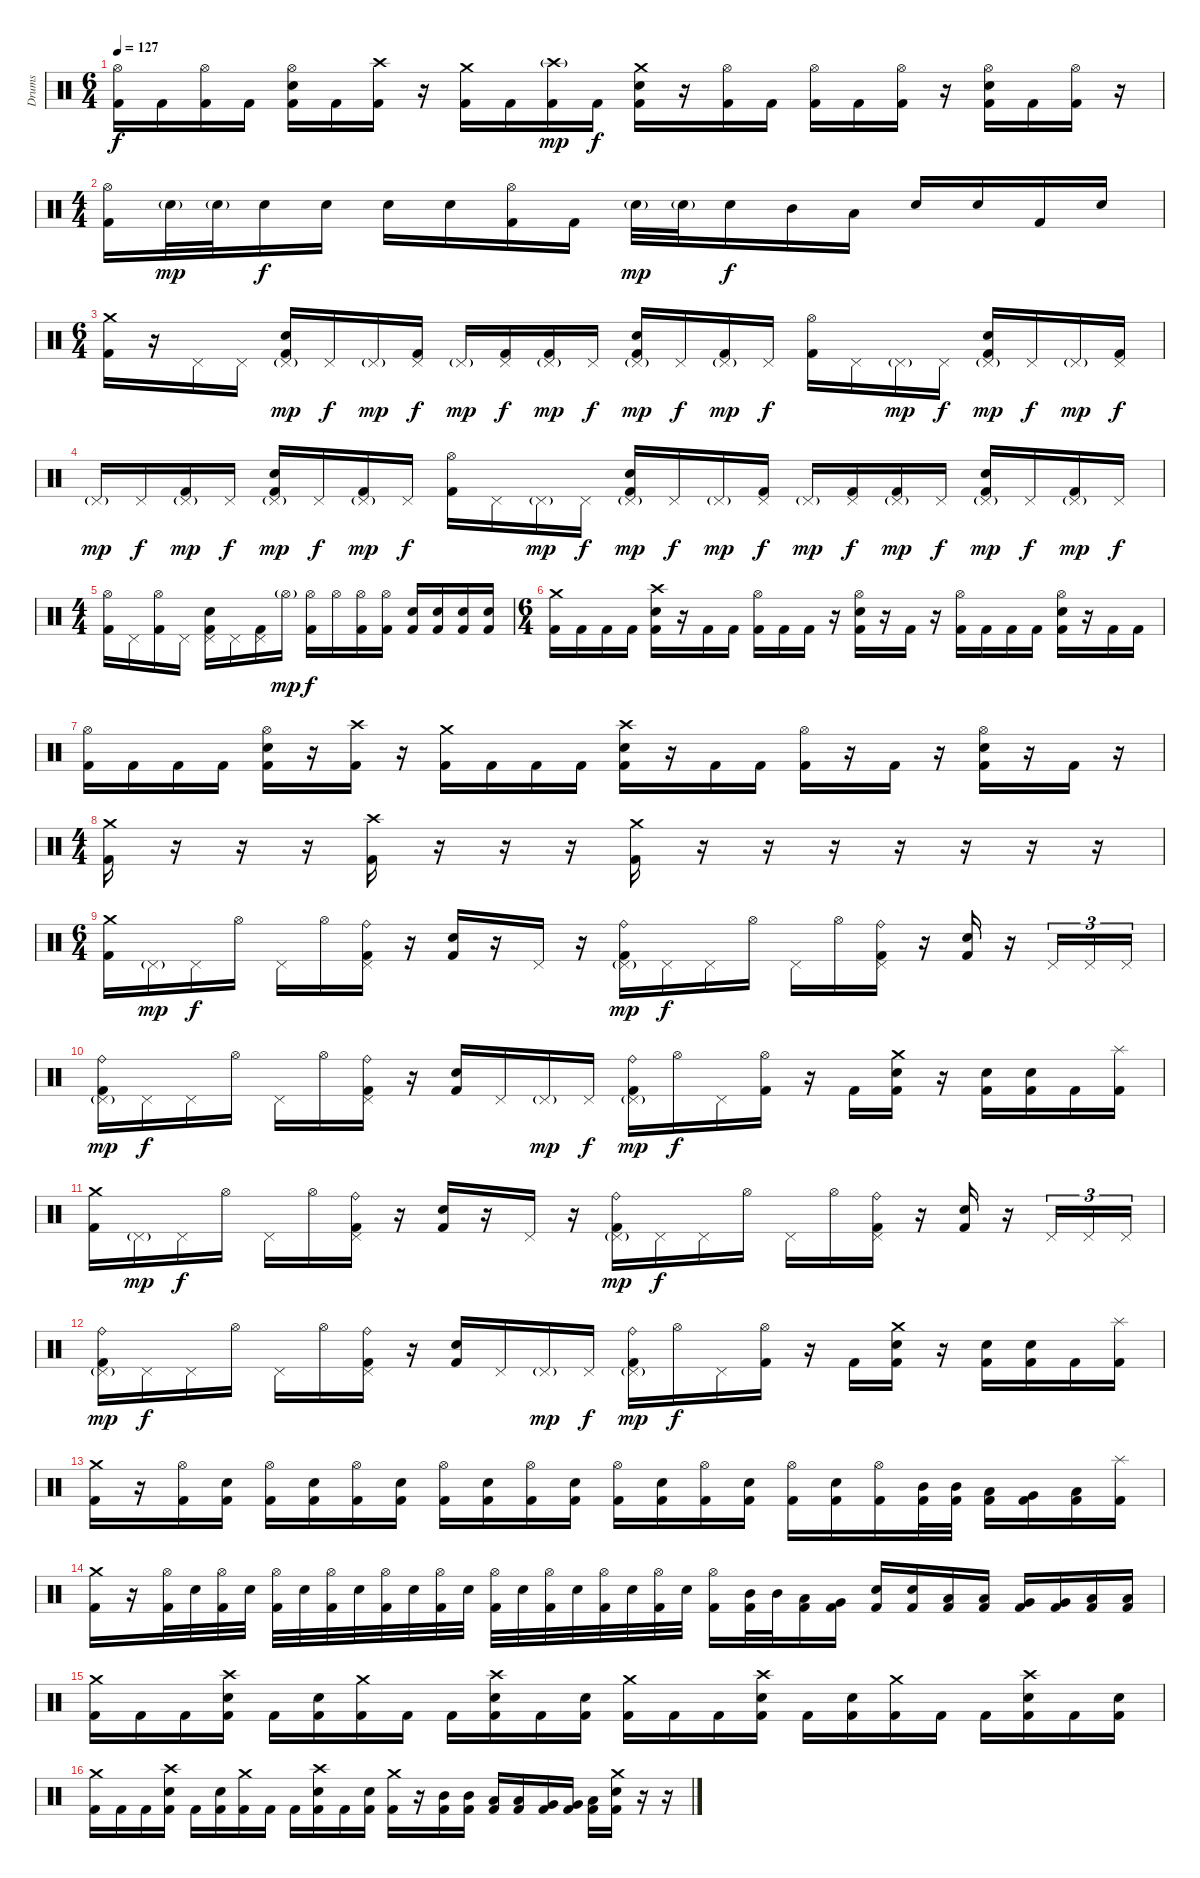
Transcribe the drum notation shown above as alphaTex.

\track ("Drums" "Drums") {instrument percussion}
\staff {score}
\articulation defaults
\ts (6 4)
\tempo 127
\clef neutral
\ks c
("Hi-Hat (open)" "Kick (hit) 2").16{dy f} "Kick (hit) 2".16 ("Hi-Hat (open)" "Kick (hit) 2").16 "Kick (hit) 2".16 ("Hi-Hat (open)" "Electric Snare (hit)" "Kick (hit) 2").16 "Kick (hit) 2".16 ("Crash high (hit)" "Kick (hit) 2").16 r.16 ("Crash medium (hit)" "Kick (hit) 2").16 "Kick (hit) 2".16 ("Crash high (hit)"{g} "Kick (hit) 2").16{dy mp} "Kick (hit) 2".16{dy f} ("Crash medium (hit)" "Electric Snare (hit)" "Kick (hit) 2").16 r.16 ("Hi-Hat (open)" "Kick (hit) 2").16 "Kick (hit) 2".16 ("Hi-Hat (open)" "Kick (hit) 2").16 "Kick (hit) 2".16 ("Hi-Hat (open)" "Kick (hit) 2").16 r.16 ("Hi-Hat (open)" "Electric Snare (hit)" "Kick (hit) 2").16 "Kick (hit) 2".16 ("Hi-Hat (open)" "Kick (hit) 2").16 r.16 |
\ts (4 4)
("Hi-Hat (open)" "Kick (hit) 2").16 "Electric Snare (hit)"{g}.32{dy mp} "Electric Snare (hit)"{g}.32 "Electric Snare (hit)".16{dy f} "Electric Snare (hit)".16 "Electric Snare (hit)".16 "Electric Snare (hit)".16 ("Hi-Hat (open)" "Kick (hit) 2").16 "Kick (hit) 2".16 "Electric Snare (hit)"{g}.32{dy mp} "Electric Snare (hit)"{g}.32 "Electric Snare (hit)".16{dy f} "Mid Tom (hit)".16 "Low Tom (hit)".16 "Electric Snare (hit)".16 "Electric Snare (hit)".16 "Kick (hit) 2".16 "Electric Snare (hit)".16 |
\ts (6 4)
("Crash medium (hit)" "Kick (hit) 2").16 r.16 "Pedal Hi-Hat (hit)".16 "Pedal Hi-Hat (hit)".16 ("Pedal Hi-Hat (hit)"{g} "Electric Snare (hit)" "Kick (hit) 2").16{dy mp} "Pedal Hi-Hat (hit)".16{dy f} "Pedal Hi-Hat (hit)"{g}.16{dy mp} ("Pedal Hi-Hat (hit)" "Kick (hit) 2").16{dy f} "Pedal Hi-Hat (hit)"{g}.16{dy mp} ("Pedal Hi-Hat (hit)" "Kick (hit) 2").16{dy f} ("Pedal Hi-Hat (hit)"{g} "Kick (hit) 2").16{dy mp} "Pedal Hi-Hat (hit)".16{dy f} ("Pedal Hi-Hat (hit)"{g} "Electric Snare (hit)" "Kick (hit) 2").16{dy mp} "Pedal Hi-Hat (hit)".16{dy f} ("Pedal Hi-Hat (hit)"{g} "Kick (hit) 2").16{dy mp} "Pedal Hi-Hat (hit)".16{dy f} ("Hi-Hat (open)" "Kick (hit) 2").16 "Pedal Hi-Hat (hit)".16 "Pedal Hi-Hat (hit)"{g}.16{dy mp} "Pedal Hi-Hat (hit)".16{dy f} ("Pedal Hi-Hat (hit)"{g} "Electric Snare (hit)" "Kick (hit) 2").16{dy mp} "Pedal Hi-Hat (hit)".16{dy f} "Pedal Hi-Hat (hit)"{g}.16{dy mp} ("Pedal Hi-Hat (hit)" "Kick (hit) 2").16{dy f} |
"Pedal Hi-Hat (hit)"{g}.16{dy mp} "Pedal Hi-Hat (hit)".16{dy f} ("Pedal Hi-Hat (hit)"{g} "Kick (hit) 2").16{dy mp} "Pedal Hi-Hat (hit)".16{dy f} ("Pedal Hi-Hat (hit)"{g} "Electric Snare (hit)" "Kick (hit) 2").16{dy mp} "Pedal Hi-Hat (hit)".16{dy f} ("Pedal Hi-Hat (hit)"{g} "Kick (hit) 2").16{dy mp} "Pedal Hi-Hat (hit)".16{dy f} ("Hi-Hat (open)" "Kick (hit) 2").16 "Pedal Hi-Hat (hit)".16 "Pedal Hi-Hat (hit)"{g}.16{dy mp} "Pedal Hi-Hat (hit)".16{dy f} ("Pedal Hi-Hat (hit)"{g} "Electric Snare (hit)" "Kick (hit) 2").16{dy mp} "Pedal Hi-Hat (hit)".16{dy f} "Pedal Hi-Hat (hit)"{g}.16{dy mp} ("Pedal Hi-Hat (hit)" "Kick (hit) 2").16{dy f} "Pedal Hi-Hat (hit)"{g}.16{dy mp} ("Pedal Hi-Hat (hit)" "Kick (hit) 2").16{dy f} ("Pedal Hi-Hat (hit)"{g} "Kick (hit) 2").16{dy mp} "Pedal Hi-Hat (hit)".16{dy f} ("Pedal Hi-Hat (hit)"{g} "Electric Snare (hit)" "Kick (hit) 2").16{dy mp} "Pedal Hi-Hat (hit)".16{dy f} ("Pedal Hi-Hat (hit)"{g} "Kick (hit) 2").16{dy mp} "Pedal Hi-Hat (hit)".16{dy f} |
\ts (4 4)
("Hi-Hat (open)" "Kick (hit) 2").16 "Pedal Hi-Hat (hit)".16 ("Hi-Hat (open)" "Kick (hit) 2").16 "Pedal Hi-Hat (hit)".16 ("Pedal Hi-Hat (hit)" "Electric Snare (hit)" "Kick (hit) 2").16 "Pedal Hi-Hat (hit)".16 ("Pedal Hi-Hat (hit)" "Kick (hit) 2").16 "Hi-Hat (open)"{g}.16{dy mp} ("Hi-Hat (open)" "Kick (hit) 2").16{dy f} "Hi-Hat (open)".16 ("Hi-Hat (open)" "Kick (hit) 2").16 ("Hi-Hat (open)" "Kick (hit) 2").16 ("Electric Snare (hit)" "Kick (hit) 2").16 ("Electric Snare (hit)" "Kick (hit) 2").16 ("Electric Snare (hit)" "Kick (hit) 2").16 ("Electric Snare (hit)" "Kick (hit) 2").16 |
\ts (6 4)
("Crash medium (hit)" "Kick (hit) 2").16 "Kick (hit) 2".16 "Kick (hit) 2".16 "Kick (hit) 2".16 ("Crash high (hit)" "Electric Snare (hit)" "Kick (hit) 2").16 r.16 "Kick (hit) 2".16 "Kick (hit) 2".16 ("Hi-Hat (open)" "Kick (hit) 2").16 "Kick (hit) 2".16 "Kick (hit) 2".16 r.16 ("Hi-Hat (open)" "Electric Snare (hit)" "Kick (hit) 2").16 r.16 "Kick (hit) 2".16 r.16 ("Hi-Hat (open)" "Kick (hit) 2").16 "Kick (hit) 2".16 "Kick (hit) 2".16 "Kick (hit) 2".16 ("Hi-Hat (open)" "Electric Snare (hit)" "Kick (hit) 2").16 r.16 "Kick (hit) 2".16 "Kick (hit) 2".16 |
("Hi-Hat (open)" "Kick (hit) 2").16 "Kick (hit) 2".16 "Kick (hit) 2".16 "Kick (hit) 2".16 ("Hi-Hat (open)" "Electric Snare (hit)" "Kick (hit) 2").16 r.16 ("Crash high (hit)" "Kick (hit) 2").16 r.16 ("Crash medium (hit)" "Kick (hit) 2").16 "Kick (hit) 2".16 "Kick (hit) 2".16 "Kick (hit) 2".16 ("Crash high (hit)" "Electric Snare (hit)" "Kick (hit) 2").16 r.16 "Kick (hit) 2".16 "Kick (hit) 2".16 ("Hi-Hat (open)" "Kick (hit) 2").16 r.16 "Kick (hit) 2".16 r.16 ("Hi-Hat (open)" "Electric Snare (hit)" "Kick (hit) 2").16 r.16 "Kick (hit) 2".16 r.16 |
\ts (4 4)
("Crash medium (hit)" "Kick (hit) 2").16 r.16 r.16 r.16 ("Crash high (hit)" "Kick (hit) 2").16 r.16 r.16 r.16 ("Crash medium (hit)" "Kick (hit) 2").16 r.16 r.16 r.16 r.16 r.16 r.16 r.16 |
\ts (6 4)
\section ("" "")
("Crash medium (hit)" "Kick (hit) 2").16 "Pedal Hi-Hat (hit)"{g}.16{dy mp} "Pedal Hi-Hat (hit)".16{dy f} "Hi-Hat (open)".16 "Pedal Hi-Hat (hit)".16 "Hi-Hat (open)".16 ("Ride (bell)" "Pedal Hi-Hat (hit)" "Kick (hit) 2").16 r.16 ("Electric Snare (hit)" "Kick (hit) 2").16 r.16 "Pedal Hi-Hat (hit)".16 r.16 ("Ride (bell)" "Pedal Hi-Hat (hit)"{g} "Kick (hit) 2").16{dy mp} "Pedal Hi-Hat (hit)".16{dy f} "Pedal Hi-Hat (hit)".16 "Hi-Hat (open)".16 "Pedal Hi-Hat (hit)".16 "Hi-Hat (open)".16 ("Ride (bell)" "Pedal Hi-Hat (hit)" "Kick (hit) 2").16 r.16 ("Electric Snare (hit)" "Kick (hit) 2").16 r.16 "Pedal Hi-Hat (hit)".16{tu (3 2)} "Pedal Hi-Hat (hit)".16{tu (3 2)} "Pedal Hi-Hat (hit)".16{tu (3 2)} |
("Ride (bell)" "Pedal Hi-Hat (hit)"{g} "Kick (hit) 2").16{dy mp} "Pedal Hi-Hat (hit)".16{dy f} "Pedal Hi-Hat (hit)".16 "Hi-Hat (open)".16 "Pedal Hi-Hat (hit)".16 "Hi-Hat (open)".16 ("Ride (bell)" "Pedal Hi-Hat (hit)" "Kick (hit) 2").16 r.16 ("Electric Snare (hit)" "Kick (hit) 2").16 "Pedal Hi-Hat (hit)".16 "Pedal Hi-Hat (hit)"{g}.16{dy mp} "Pedal Hi-Hat (hit)".16{dy f} ("Ride (bell)" "Pedal Hi-Hat (hit)"{g} "Kick (hit) 2").16{dy mp} "Hi-Hat (open)".16{dy f} "Pedal Hi-Hat (hit)".16 ("Hi-Hat (open)" "Kick (hit) 2").16 r.16 "Kick (hit) 2".16 ("Crash medium (hit)" "Electric Snare (hit)" "Kick (hit) 2").16 r.16 ("Electric Snare (hit)" "Kick (hit) 2").16 ("Electric Snare (hit)" "Kick (hit) 2").16 "Kick (hit) 2".16 ("Splash (hit)" "Kick (hit) 2").16 |
("Crash medium (hit)" "Kick (hit) 2").16 "Pedal Hi-Hat (hit)"{g}.16{dy mp} "Pedal Hi-Hat (hit)".16{dy f} "Hi-Hat (open)".16 "Pedal Hi-Hat (hit)".16 "Hi-Hat (open)".16 ("Ride (bell)" "Pedal Hi-Hat (hit)" "Kick (hit) 2").16 r.16 ("Electric Snare (hit)" "Kick (hit) 2").16 r.16 "Pedal Hi-Hat (hit)".16 r.16 ("Ride (bell)" "Pedal Hi-Hat (hit)"{g} "Kick (hit) 2").16{dy mp} "Pedal Hi-Hat (hit)".16{dy f} "Pedal Hi-Hat (hit)".16 "Hi-Hat (open)".16 "Pedal Hi-Hat (hit)".16 "Hi-Hat (open)".16 ("Ride (bell)" "Pedal Hi-Hat (hit)" "Kick (hit) 2").16 r.16 ("Electric Snare (hit)" "Kick (hit) 2").16 r.16 "Pedal Hi-Hat (hit)".16{tu (3 2)} "Pedal Hi-Hat (hit)".16{tu (3 2)} "Pedal Hi-Hat (hit)".16{tu (3 2)} |
("Ride (bell)" "Pedal Hi-Hat (hit)"{g} "Kick (hit) 2").16{dy mp} "Pedal Hi-Hat (hit)".16{dy f} "Pedal Hi-Hat (hit)".16 "Hi-Hat (open)".16 "Pedal Hi-Hat (hit)".16 "Hi-Hat (open)".16 ("Ride (bell)" "Pedal Hi-Hat (hit)" "Kick (hit) 2").16 r.16 ("Electric Snare (hit)" "Kick (hit) 2").16 "Pedal Hi-Hat (hit)".16 "Pedal Hi-Hat (hit)"{g}.16{dy mp} "Pedal Hi-Hat (hit)".16{dy f} ("Ride (bell)" "Pedal Hi-Hat (hit)"{g} "Kick (hit) 2").16{dy mp} "Hi-Hat (open)".16{dy f} "Pedal Hi-Hat (hit)".16 ("Hi-Hat (open)" "Kick (hit) 2").16 r.16 "Kick (hit) 2".16 ("Crash medium (hit)" "Electric Snare (hit)" "Kick (hit) 2").16 r.16 ("Electric Snare (hit)" "Kick (hit) 2").16 ("Electric Snare (hit)" "Kick (hit) 2").16 "Kick (hit) 2".16 ("Splash (hit)" "Kick (hit) 2").16 |
\section ("" "")
("Crash medium (hit)" "Kick (hit) 2").16 r.16 ("Hi-Hat (open)" "Kick (hit) 2").16 ("Electric Snare (hit)" "Kick (hit) 2").16 ("Hi-Hat (open)" "Kick (hit) 2").16 ("Electric Snare (hit)" "Kick (hit) 2").16 ("Hi-Hat (open)" "Kick (hit) 2").16 ("Electric Snare (hit)" "Kick (hit) 2").16 ("Hi-Hat (open)" "Kick (hit) 2").16 ("Electric Snare (hit)" "Kick (hit) 2").16 ("Hi-Hat (open)" "Kick (hit) 2").16 ("Electric Snare (hit)" "Kick (hit) 2").16 ("Hi-Hat (open)" "Kick (hit) 2").16 ("Electric Snare (hit)" "Kick (hit) 2").16 ("Hi-Hat (open)" "Kick (hit) 2").16 ("Electric Snare (hit)" "Kick (hit) 2").16 ("Hi-Hat (open)" "Kick (hit) 2").16 ("Electric Snare (hit)" "Kick (hit) 2").16 ("Hi-Hat (open)" "Kick (hit) 2").16 ("Mid Tom (hit)" "Kick (hit) 2").32 ("Mid Tom (hit)" "Kick (hit) 2").32 ("Low Tom (hit)" "Kick (hit) 2").16 ("Very Low Tom (hit)" "Kick (hit) 2").16 ("Low Floor Tom (hit)" "Kick (hit) 2").16 ("Splash (hit)" "Kick (hit) 2").16 |
("Crash medium (hit)" "Kick (hit) 2").16 r.16 ("Hi-Hat (open)" "Kick (hit) 2").32 "Electric Snare (hit)".32 ("Hi-Hat (open)" "Kick (hit) 2").32 "Electric Snare (hit)".32 ("Hi-Hat (open)" "Kick (hit) 2").32 "Electric Snare (hit)".32 ("Hi-Hat (open)" "Kick (hit) 2").32 "Electric Snare (hit)".32 ("Hi-Hat (open)" "Kick (hit) 2").32 "Electric Snare (hit)".32 ("Hi-Hat (open)" "Kick (hit) 2").32 "Electric Snare (hit)".32 ("Hi-Hat (open)" "Kick (hit) 2").32 "Electric Snare (hit)".32 ("Hi-Hat (open)" "Kick (hit) 2").32 "Electric Snare (hit)".32 ("Hi-Hat (open)" "Kick (hit) 2").32 "Electric Snare (hit)".32 ("Hi-Hat (open)" "Kick (hit) 2").32 "Electric Snare (hit)".32 ("Hi-Hat (open)" "Kick (hit) 2").16 ("Mid Tom (hit)" "Kick (hit) 2").32 "Mid Tom (hit)".32 ("Low Tom (hit)" "Kick (hit) 2").16 ("Very Low Tom (hit)" "Kick (hit) 2").16 ("Electric Snare (hit)" "Kick (hit) 2").16 ("Electric Snare (hit)" "Kick (hit) 2").16 ("Low Tom (hit)" "Kick (hit) 2").16 ("Low Tom (hit)" "Kick (hit) 2").16 ("Very Low Tom (hit)" "Kick (hit) 2").16 ("Very Low Tom (hit)" "Kick (hit) 2").16 ("Low Floor Tom (hit)" "Kick (hit) 2").16 ("Low Floor Tom (hit)" "Kick (hit) 2").16 |
\section ("" "")
("Crash medium (hit)" "Kick (hit) 2").16 "Kick (hit) 2".16 "Kick (hit) 2".16 ("Crash high (hit)" "Electric Snare (hit)" "Kick (hit) 2").16 "Kick (hit) 2".16 ("Electric Snare (hit)" "Kick (hit) 2").16 ("Crash medium (hit)" "Kick (hit) 2").16 "Kick (hit) 2".16 "Kick (hit) 2".16 ("Crash high (hit)" "Electric Snare (hit)" "Kick (hit) 2").16 "Kick (hit) 2".16 ("Electric Snare (hit)" "Kick (hit) 2").16 ("Crash medium (hit)" "Kick (hit) 2").16 "Kick (hit) 2".16 "Kick (hit) 2".16 ("Crash high (hit)" "Electric Snare (hit)" "Kick (hit) 2").16 "Kick (hit) 2".16 ("Electric Snare (hit)" "Kick (hit) 2").16 ("Crash medium (hit)" "Kick (hit) 2").16 "Kick (hit) 2".16 "Kick (hit) 2".16 ("Crash high (hit)" "Electric Snare (hit)" "Kick (hit) 2").16 "Kick (hit) 2".16 ("Electric Snare (hit)" "Kick (hit) 2").16 |
("Crash medium (hit)" "Kick (hit) 2").16 "Kick (hit) 2".16 "Kick (hit) 2".16 ("Crash high (hit)" "Electric Snare (hit)" "Kick (hit) 2").16 "Kick (hit) 2".16 ("Electric Snare (hit)" "Kick (hit) 2").16 ("Crash medium (hit)" "Kick (hit) 2").16 "Kick (hit) 2".16 "Kick (hit) 2".16 ("Crash high (hit)" "Electric Snare (hit)" "Kick (hit) 2").16 "Kick (hit) 2".16 ("Electric Snare (hit)" "Kick (hit) 2").16 ("Crash medium (hit)" "Kick (hit) 2").16 r.16 ("Mid Tom (hit)" "Kick (hit) 2").16 ("Mid Tom (hit)" "Kick (hit) 2").16 ("Low Tom (hit)" "Kick (hit) 2").16 ("Low Tom (hit)" "Kick (hit) 2").16 ("Very Low Tom (hit)" "Kick (hit) 2").16 ("Very Low Tom (hit)" "Kick (hit) 2").16 ("Low Floor Tom (hit)" "Kick (hit) 2").16 ("Crash medium (hit)" "Electric Snare (hit)" "Kick (hit) 2").16 r.16{volume 0} r.16
